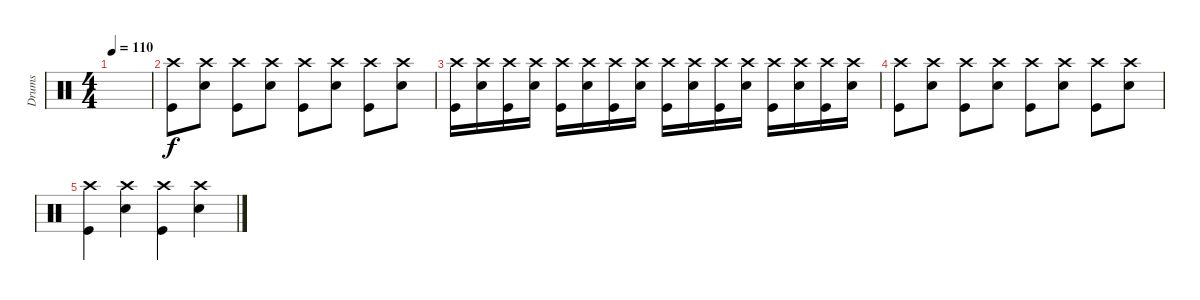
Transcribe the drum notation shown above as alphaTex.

\track ("Drums" "Drums") {instrument percussion}
\staff {score}
\articulation defaults
\ts (4 4)
\tempo 110
\clef neutral
\ks c
|
("Crash high (hit)" "Kick (hit)").8 ("Crash high (hit)" "Metronome (bell)").8 ("Crash high (hit)" "Kick (hit)").8 ("Crash high (hit)" "Metronome (bell)").8 ("Crash high (hit)" "Kick (hit)").8 ("Crash high (hit)" "Metronome (bell)").8 ("Crash high (hit)" "Kick (hit)").8 ("Crash high (hit)" "Metronome (bell)").8 |
("Crash high (hit)" "Kick (hit)").16 ("Crash high (hit)" "Metronome (bell)").16 ("Crash high (hit)" "Kick (hit)").16 ("Crash high (hit)" "Metronome (bell)").16 ("Crash high (hit)" "Kick (hit)").16 ("Crash high (hit)" "Metronome (bell)").16 ("Crash high (hit)" "Kick (hit)").16 ("Crash high (hit)" "Metronome (bell)").16 ("Crash high (hit)" "Kick (hit)").16 ("Crash high (hit)" "Metronome (bell)").16 ("Crash high (hit)" "Kick (hit)").16 ("Crash high (hit)" "Metronome (bell)").16 ("Crash high (hit)" "Kick (hit)").16 ("Crash high (hit)" "Metronome (bell)").16 ("Crash high (hit)" "Kick (hit)").16 ("Crash high (hit)" "Metronome (bell)").16 |
("Crash high (hit)" "Kick (hit)").8 ("Crash high (hit)" "Metronome (bell)").8 ("Crash high (hit)" "Kick (hit)").8 ("Crash high (hit)" "Metronome (bell)").8 ("Crash high (hit)" "Kick (hit)").8 ("Crash high (hit)" "Metronome (bell)").8 ("Crash high (hit)" "Kick (hit)").8 ("Crash high (hit)" "Metronome (bell)").8 |
("Crash high (hit)" "Kick (hit)").4 ("Crash high (hit)" "Metronome (bell)").4 ("Crash high (hit)" "Kick (hit)").4 ("Crash high (hit)" "Metronome (bell)").4
